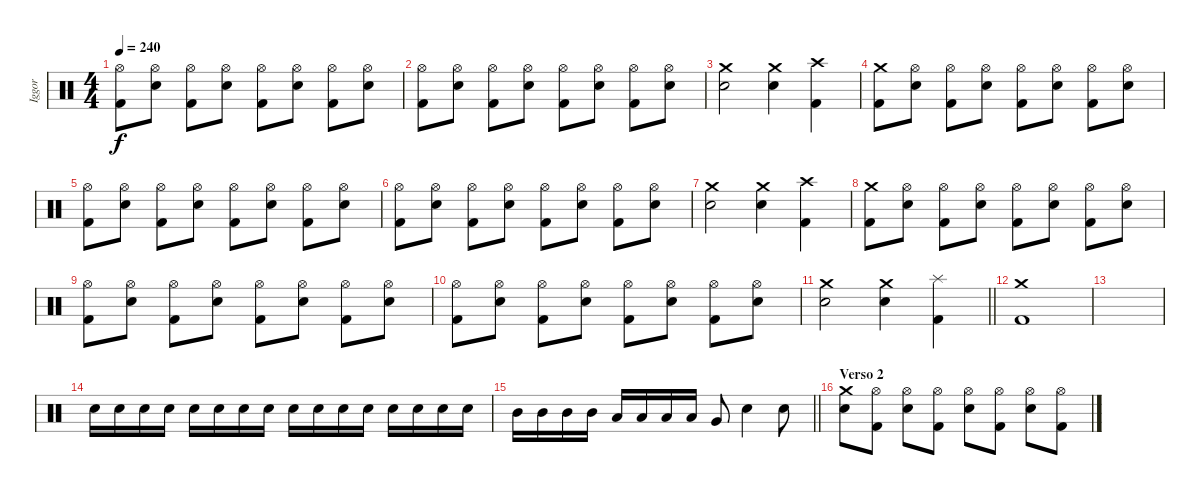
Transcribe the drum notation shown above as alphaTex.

\track ("Iggor" "Iggor") {instrument percussion}
\staff {score}
\articulation defaults
\ts (4 4)
\tempo 240
\clef neutral
\ks c
("Hi-Hat (open)" "Kick (hit) 2").8{dy f} ("Hi-Hat (open)" "Snare (hit) 2").8 ("Hi-Hat (open)" "Kick (hit) 2").8 ("Hi-Hat (open)" "Snare (hit) 2").8 ("Hi-Hat (open)" "Kick (hit) 2").8 ("Hi-Hat (open)" "Snare (hit) 2").8 ("Hi-Hat (open)" "Kick (hit) 2").8 ("Hi-Hat (open)" "Snare (hit) 2").8 |
("Hi-Hat (open)" "Kick (hit) 2").8 ("Hi-Hat (open)" "Snare (hit) 2").8 ("Hi-Hat (open)" "Kick (hit) 2").8 ("Hi-Hat (open)" "Snare (hit) 2").8 ("Hi-Hat (open)" "Kick (hit) 2").8 ("Hi-Hat (open)" "Snare (hit) 2").8 ("Hi-Hat (open)" "Kick (hit) 2").8 ("Hi-Hat (open)" "Snare (hit) 2").8 |
("Crash medium (hit)" "Snare (hit) 2").2 ("Crash medium (hit)" "Snare (hit) 2").4 ("Crash high (hit)" "Kick (hit) 2").4 |
("Crash medium (hit)" "Kick (hit) 2").8 ("Hi-Hat (open)" "Snare (hit) 2").8 ("Hi-Hat (open)" "Kick (hit) 2").8 ("Hi-Hat (open)" "Snare (hit) 2").8 ("Hi-Hat (open)" "Kick (hit) 2").8 ("Hi-Hat (open)" "Snare (hit) 2").8 ("Hi-Hat (open)" "Kick (hit) 2").8 ("Hi-Hat (open)" "Snare (hit) 2").8 |
("Hi-Hat (open)" "Kick (hit) 2").8 ("Hi-Hat (open)" "Snare (hit) 2").8 ("Hi-Hat (open)" "Kick (hit) 2").8 ("Hi-Hat (open)" "Snare (hit) 2").8 ("Hi-Hat (open)" "Kick (hit) 2").8 ("Hi-Hat (open)" "Snare (hit) 2").8 ("Hi-Hat (open)" "Kick (hit) 2").8 ("Hi-Hat (open)" "Snare (hit) 2").8 |
("Hi-Hat (open)" "Kick (hit) 2").8 ("Hi-Hat (open)" "Snare (hit) 2").8 ("Hi-Hat (open)" "Kick (hit) 2").8 ("Hi-Hat (open)" "Snare (hit) 2").8 ("Hi-Hat (open)" "Kick (hit) 2").8 ("Hi-Hat (open)" "Snare (hit) 2").8 ("Hi-Hat (open)" "Kick (hit) 2").8 ("Hi-Hat (open)" "Snare (hit) 2").8 |
("Crash medium (hit)" "Snare (hit) 2").2 ("Crash medium (hit)" "Snare (hit) 2").4 ("Crash high (hit)" "Kick (hit) 2").4 |
("Crash medium (hit)" "Kick (hit) 2").8 ("Hi-Hat (open)" "Snare (hit) 2").8 ("Hi-Hat (open)" "Kick (hit) 2").8 ("Hi-Hat (open)" "Snare (hit) 2").8 ("Hi-Hat (open)" "Kick (hit) 2").8 ("Hi-Hat (open)" "Snare (hit) 2").8 ("Hi-Hat (open)" "Kick (hit) 2").8 ("Hi-Hat (open)" "Snare (hit) 2").8 |
("Hi-Hat (open)" "Kick (hit) 2").8 ("Hi-Hat (open)" "Snare (hit) 2").8 ("Hi-Hat (open)" "Kick (hit) 2").8 ("Hi-Hat (open)" "Snare (hit) 2").8 ("Hi-Hat (open)" "Kick (hit) 2").8 ("Hi-Hat (open)" "Snare (hit) 2").8 ("Hi-Hat (open)" "Kick (hit) 2").8 ("Hi-Hat (open)" "Snare (hit) 2").8 |
("Hi-Hat (open)" "Kick (hit) 2").8 ("Hi-Hat (open)" "Snare (hit) 2").8 ("Hi-Hat (open)" "Kick (hit) 2").8 ("Hi-Hat (open)" "Snare (hit) 2").8 ("Hi-Hat (open)" "Kick (hit) 2").8 ("Hi-Hat (open)" "Snare (hit) 2").8 ("Hi-Hat (open)" "Kick (hit) 2").8 ("Hi-Hat (open)" "Snare (hit) 2").8 |
\barLineRight lightlight
("Crash medium (hit)" "Snare (hit) 2").2 ("Crash medium (hit)" "Snare (hit) 2").4 ("Splash (hit)" "Kick (hit) 2").4 |
\section ("" "")
("Crash medium (hit)" "Kick (hit) 2").1 |
|
"Snare (hit) 2".16 "Snare (hit) 2".16 "Snare (hit) 2".16 "Snare (hit) 2".16 "Snare (hit) 2".16 "Snare (hit) 2".16 "Snare (hit) 2".16 "Snare (hit) 2".16 "Snare (hit) 2".16 "Snare (hit) 2".16 "Snare (hit) 2".16 "Snare (hit) 2".16 "Snare (hit) 2".16 "Snare (hit) 2".16 "Snare (hit) 2".16 "Snare (hit) 2".16 |
\barLineRight lightlight "Mid Tom (hit)".16 "Mid Tom (hit)".16 "Mid Tom (hit)".16 "Mid Tom (hit)".16 "Low Tom (hit)".16 "Low Tom (hit)".16 "Low Tom (hit)".16 "Low Tom (hit)".16 "Very Low Tom (hit)".8 "Snare (hit) 2".4 "Snare (hit) 2".8
|
\section ("" "Verso 2")
("Crash medium (hit)" "Snare (hit) 2").8 ("Hi-Hat (open)" "Kick (hit) 2").8 ("Hi-Hat (open)" "Snare (hit) 2").8 ("Hi-Hat (open)" "Kick (hit) 2").8 ("Hi-Hat (open)" "Snare (hit) 2").8 ("Hi-Hat (open)" "Kick (hit) 2").8 ("Hi-Hat (open)" "Snare (hit) 2").8 ("Hi-Hat (open)" "Kick (hit) 2").8
